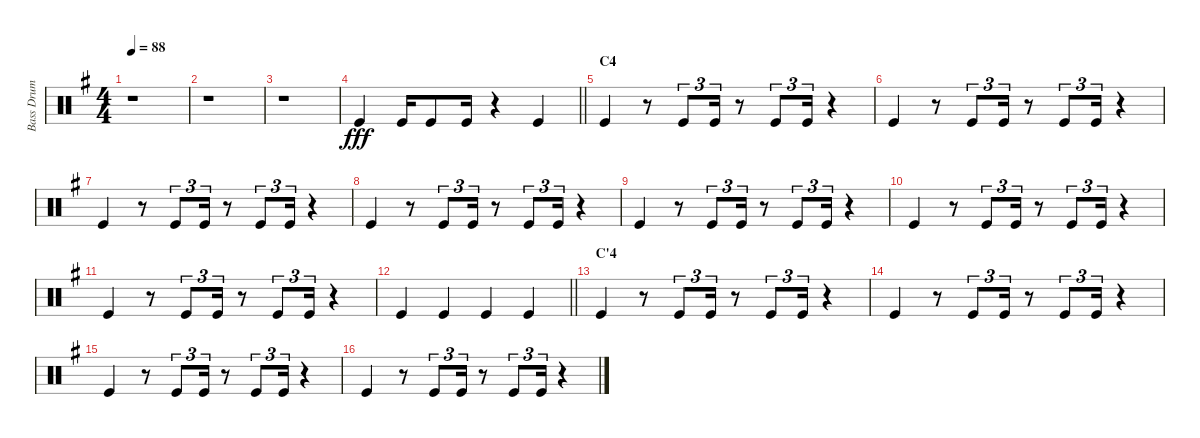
\track ("Bass Drum" "Bass Drum") {instrument percussion}
\staff {score}
\articulation defaults
\ts (4 4)
\tempo 88
\clef neutral
\ks g
r.1{dy fff} |
r.1 |
r.1 |
\barLineRight lightlight "Kick (hit)".4 "Kick (hit)".16 "Kick (hit)".8 "Kick (hit)".16
r.4 "Kick (hit)".4 |
\section ("" "C4")
"Kick (hit)".4 r.8 "Kick (hit)".8{tu (3 2)} "Kick (hit)".16{tu (3 2)} r.8 "Kick (hit)".8{tu (3 2)} "Kick (hit)".16{tu (3 2)} r.4 |
"Kick (hit)".4 r.8 "Kick (hit)".8{tu (3 2)} "Kick (hit)".16{tu (3 2)} r.8 "Kick (hit)".8{tu (3 2)} "Kick (hit)".16{tu (3 2)} r.4 |
"Kick (hit)".4 r.8 "Kick (hit)".8{tu (3 2)} "Kick (hit)".16{tu (3 2)} r.8 "Kick (hit)".8{tu (3 2)} "Kick (hit)".16{tu (3 2)} r.4 |
"Kick (hit)".4 r.8 "Kick (hit)".8{tu (3 2)} "Kick (hit)".16{tu (3 2)} r.8 "Kick (hit)".8{tu (3 2)} "Kick (hit)".16{tu (3 2)} r.4 |
"Kick (hit)".4 r.8 "Kick (hit)".8{tu (3 2)} "Kick (hit)".16{tu (3 2)} r.8 "Kick (hit)".8{tu (3 2)} "Kick (hit)".16{tu (3 2)} r.4 |
"Kick (hit)".4 r.8 "Kick (hit)".8{tu (3 2)} "Kick (hit)".16{tu (3 2)} r.8 "Kick (hit)".8{tu (3 2)} "Kick (hit)".16{tu (3 2)} r.4 |
"Kick (hit)".4 r.8 "Kick (hit)".8{tu (3 2)} "Kick (hit)".16{tu (3 2)} r.8 "Kick (hit)".8{tu (3 2)} "Kick (hit)".16{tu (3 2)} r.4 |
\barLineRight lightlight "Kick (hit)".4 "Kick (hit)".4 "Kick (hit)".4 "Kick (hit)".4
|
\section ("" "C'4")
"Kick (hit)".4 r.8 "Kick (hit)".8{tu (3 2)} "Kick (hit)".16{tu (3 2)} r.8 "Kick (hit)".8{tu (3 2)} "Kick (hit)".16{tu (3 2)} r.4 |
"Kick (hit)".4 r.8 "Kick (hit)".8{tu (3 2)} "Kick (hit)".16{tu (3 2)} r.8 "Kick (hit)".8{tu (3 2)} "Kick (hit)".16{tu (3 2)} r.4 |
"Kick (hit)".4 r.8 "Kick (hit)".8{tu (3 2)} "Kick (hit)".16{tu (3 2)} r.8 "Kick (hit)".8{tu (3 2)} "Kick (hit)".16{tu (3 2)} r.4 |
"Kick (hit)".4 r.8 "Kick (hit)".8{tu (3 2)} "Kick (hit)".16{tu (3 2)} r.8 "Kick (hit)".8{tu (3 2)} "Kick (hit)".16{tu (3 2)} r.4
